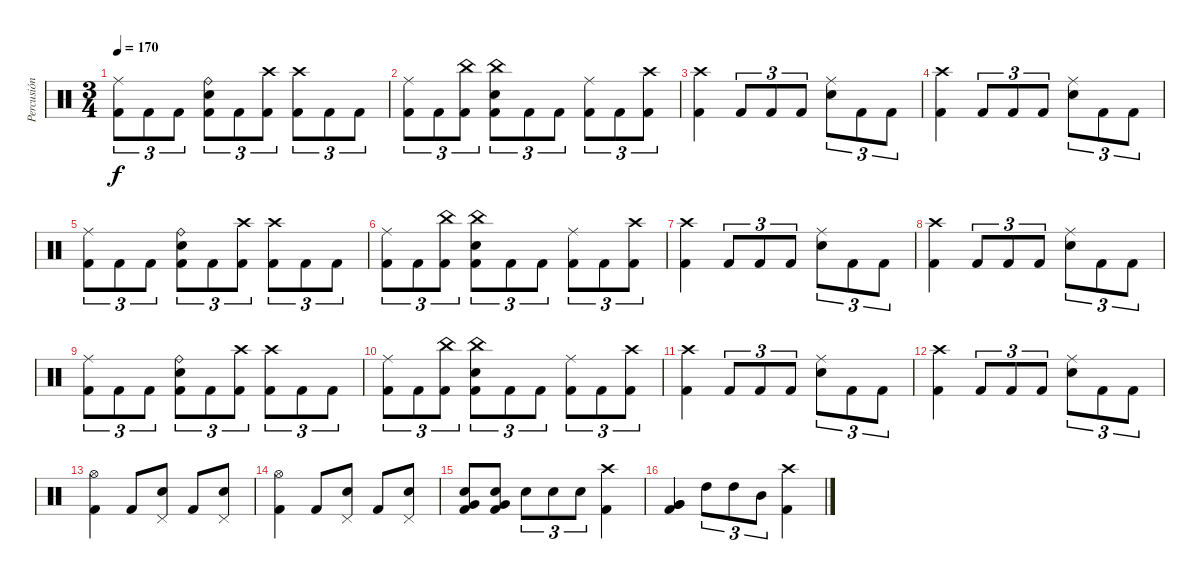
\track ("Percusión" "Percusión") {instrument percussion}
\staff {score}
\articulation defaults
\ts (3 4)
\tempo 170
\clef neutral
\ks c
("Ride (middle)" "Kick (hit) 2").8{tu (3 2) dy f} "Kick (hit) 2".8{tu (3 2)} "Kick (hit) 2".8{tu (3 2)} ("Ride (bell)" "Snare (hit) 2" "Kick (hit) 2").8{tu (3 2)} "Kick (hit) 2".8{tu (3 2)} ("Crash high (hit)" "Kick (hit) 2").8{tu (3 2)} ("Crash high (hit)" "Kick (hit) 2").8{tu (3 2)} "Kick (hit) 2".8{tu (3 2)} "Kick (hit) 2".8{tu (3 2)} |
("Ride (middle)" "Kick (hit) 2").8{tu (3 2)} "Kick (hit) 2".8{tu (3 2)} ("China (hit)" "Kick (hit) 2").8{tu (3 2)} ("China (hit)" "Snare (hit) 2" "Kick (hit) 2").8{tu (3 2)} "Kick (hit) 2".8{tu (3 2)} "Kick (hit) 2".8{tu (3 2)} ("Ride (middle)" "Kick (hit) 2").8{tu (3 2)} "Kick (hit) 2".8{tu (3 2)} ("Crash high (hit)" "Kick (hit) 2").8{tu (3 2)} |
("Crash high (hit)" "Kick (hit) 2").4 "Kick (hit) 2".8{tu (3 2)} "Kick (hit) 2".8{tu (3 2)} "Kick (hit) 2".8{tu (3 2)} ("Ride (middle)" "Snare (hit) 2").8{tu (3 2)} "Kick (hit) 2".8{tu (3 2)} "Kick (hit) 2".8{tu (3 2)} |
("Crash high (hit)" "Kick (hit) 2").4 "Kick (hit) 2".8{tu (3 2)} "Kick (hit) 2".8{tu (3 2)} "Kick (hit) 2".8{tu (3 2)} ("Ride (middle)" "Snare (hit) 2").8{tu (3 2)} "Kick (hit) 2".8{tu (3 2)} "Kick (hit) 2".8{tu (3 2)} |
("Ride (middle)" "Kick (hit) 2").8{tu (3 2)} "Kick (hit) 2".8{tu (3 2)} "Kick (hit) 2".8{tu (3 2)} ("Ride (bell)" "Snare (hit) 2" "Kick (hit) 2").8{tu (3 2)} "Kick (hit) 2".8{tu (3 2)} ("Crash high (hit)" "Kick (hit) 2").8{tu (3 2)} ("Crash high (hit)" "Kick (hit) 2").8{tu (3 2)} "Kick (hit) 2".8{tu (3 2)} "Kick (hit) 2".8{tu (3 2)} |
("Ride (middle)" "Kick (hit) 2").8{tu (3 2)} "Kick (hit) 2".8{tu (3 2)} ("China (hit)" "Kick (hit) 2").8{tu (3 2)} ("China (hit)" "Snare (hit) 2" "Kick (hit) 2").8{tu (3 2)} "Kick (hit) 2".8{tu (3 2)} "Kick (hit) 2".8{tu (3 2)} ("Ride (middle)" "Kick (hit) 2").8{tu (3 2)} "Kick (hit) 2".8{tu (3 2)} ("Crash high (hit)" "Kick (hit) 2").8{tu (3 2)} |
("Crash high (hit)" "Kick (hit) 2").4 "Kick (hit) 2".8{tu (3 2)} "Kick (hit) 2".8{tu (3 2)} "Kick (hit) 2".8{tu (3 2)} ("Ride (middle)" "Snare (hit) 2").8{tu (3 2)} "Kick (hit) 2".8{tu (3 2)} "Kick (hit) 2".8{tu (3 2)} |
("Crash high (hit)" "Kick (hit) 2").4 "Kick (hit) 2".8{tu (3 2)} "Kick (hit) 2".8{tu (3 2)} "Kick (hit) 2".8{tu (3 2)} ("Ride (middle)" "Snare (hit) 2").8{tu (3 2)} "Kick (hit) 2".8{tu (3 2)} "Kick (hit) 2".8{tu (3 2)} |
("Ride (middle)" "Kick (hit) 2").8{tu (3 2)} "Kick (hit) 2".8{tu (3 2)} "Kick (hit) 2".8{tu (3 2)} ("Ride (bell)" "Snare (hit) 2" "Kick (hit) 2").8{tu (3 2)} "Kick (hit) 2".8{tu (3 2)} ("Crash high (hit)" "Kick (hit) 2").8{tu (3 2)} ("Crash high (hit)" "Kick (hit) 2").8{tu (3 2)} "Kick (hit) 2".8{tu (3 2)} "Kick (hit) 2".8{tu (3 2)} |
("Ride (middle)" "Kick (hit) 2").8{tu (3 2)} "Kick (hit) 2".8{tu (3 2)} ("China (hit)" "Kick (hit) 2").8{tu (3 2)} ("China (hit)" "Snare (hit) 2" "Kick (hit) 2").8{tu (3 2)} "Kick (hit) 2".8{tu (3 2)} "Kick (hit) 2".8{tu (3 2)} ("Ride (middle)" "Kick (hit) 2").8{tu (3 2)} "Kick (hit) 2".8{tu (3 2)} ("Crash high (hit)" "Kick (hit) 2").8{tu (3 2)} |
("Crash high (hit)" "Kick (hit) 2").4 "Kick (hit) 2".8{tu (3 2)} "Kick (hit) 2".8{tu (3 2)} "Kick (hit) 2".8{tu (3 2)} ("Ride (middle)" "Snare (hit) 2").8{tu (3 2)} "Kick (hit) 2".8{tu (3 2)} "Kick (hit) 2".8{tu (3 2)} |
("Crash high (hit)" "Kick (hit) 2").4 "Kick (hit) 2".8{tu (3 2)} "Kick (hit) 2".8{tu (3 2)} "Kick (hit) 2".8{tu (3 2)} ("Ride (middle)" "Snare (hit) 2").8{tu (3 2)} "Kick (hit) 2".8{tu (3 2)} "Kick (hit) 2".8{tu (3 2)} |
("Hi-Hat (open)" "Kick (hit) 2").4 "Kick (hit) 2".8 ("Pedal Hi-Hat (hit)" "Snare (hit) 2").8 "Kick (hit) 2".8 ("Pedal Hi-Hat (hit)" "Snare (hit) 2").8 |
("Hi-Hat (open)" "Kick (hit) 2").4 "Kick (hit) 2".8 ("Pedal Hi-Hat (hit)" "Snare (hit) 2").8 "Kick (hit) 2".8 ("Pedal Hi-Hat (hit)" "Snare (hit) 2").8 |
("Snare (hit) 2" "Very Low Tom (hit)" "Kick (hit) 2").8 ("Snare (hit) 2" "Very Low Tom (hit)" "Kick (hit) 2").8 "Snare (hit) 2".8{tu (3 2)} "Snare (hit) 2".8{tu (3 2)} "Snare (hit) 2".8{tu (3 2)} ("Crash high (hit)" "Kick (hit) 2").4 |
("Very Low Tom (hit)" "Very Low Tom (hit)" "Kick (hit) 2").4 "High Tom (hit)".8{tu (3 2)} "High Tom (hit)".8{tu (3 2)} "Mid Tom (hit)".8{tu (3 2)} ("Crash high (hit)" "Kick (hit) 2").4
